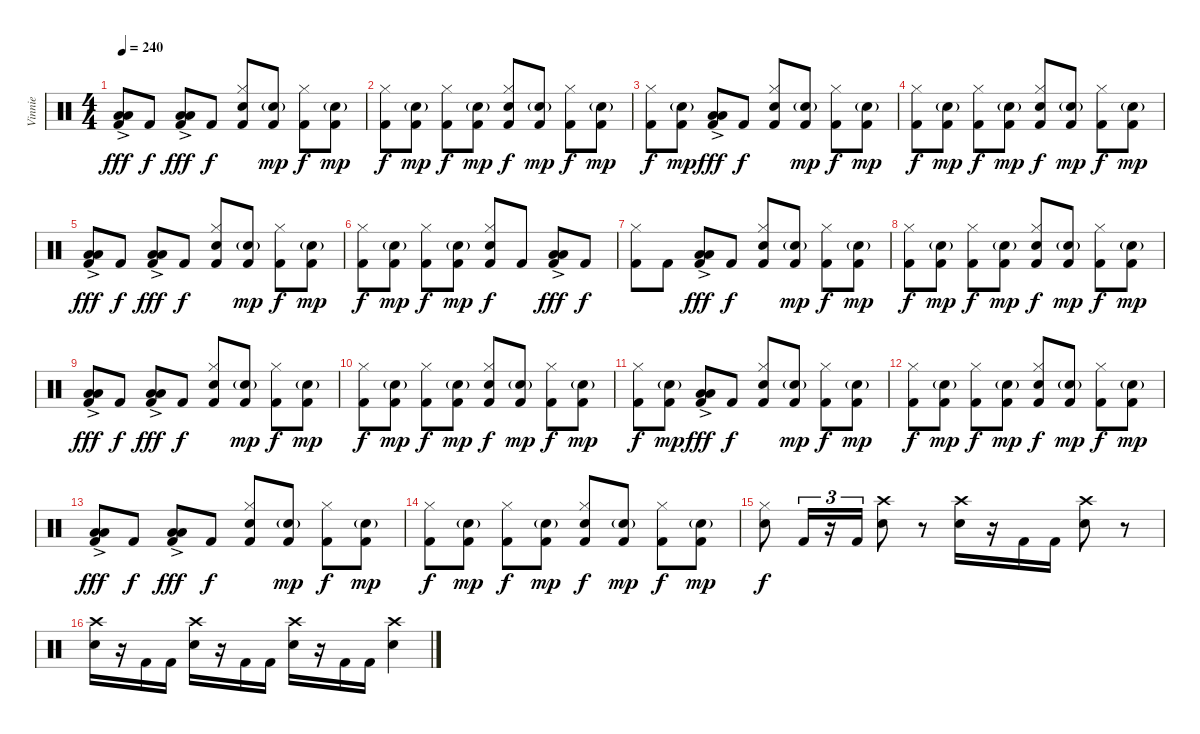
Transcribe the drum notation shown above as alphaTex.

\track ("Vinnie" "Vinnie") {instrument percussion}
\staff {score}
\articulation defaults
\ts (4 4)
\tempo 240
\clef neutral
\ks c
("Low Tom (hit)"{ac} "Low Tom (hit)"{ac} "Kick (hit) 2").8{dy fff} "Kick (hit) 2".8{dy f} ("Low Tom (hit)"{ac} "Low Tom (hit)"{ac} "Kick (hit) 2").8{dy fff} "Kick (hit) 2".8{dy f} ("Hi-Hat (closed)" "Electric Snare (hit)" "Kick (hit) 2").8 ("Electric Snare (hit)"{g} "Kick (hit) 2").8{dy mp} ("Hi-Hat (closed)" "Kick (hit) 2").8{dy f} ("Electric Snare (hit)"{g} "Kick (hit) 2").8{dy mp} |
("Hi-Hat (closed)" "Kick (hit) 2").8{dy f} ("Electric Snare (hit)"{g} "Kick (hit) 2").8{dy mp} ("Hi-Hat (closed)" "Kick (hit) 2").8{dy f} ("Electric Snare (hit)"{g} "Kick (hit) 2").8{dy mp} ("Hi-Hat (closed)" "Electric Snare (hit)" "Kick (hit) 2").8{dy f} ("Electric Snare (hit)"{g} "Kick (hit) 2").8{dy mp} ("Hi-Hat (closed)" "Kick (hit) 2").8{dy f} ("Electric Snare (hit)"{g} "Kick (hit) 2").8{dy mp} |
("Hi-Hat (closed)" "Kick (hit) 2").8{dy f} ("Electric Snare (hit)"{g} "Kick (hit) 2").8{dy mp} ("Low Tom (hit)"{ac} "Low Tom (hit)"{ac} "Kick (hit) 2").8{dy fff} "Kick (hit) 2".8{dy f} ("Hi-Hat (closed)" "Electric Snare (hit)" "Kick (hit) 2").8 ("Electric Snare (hit)"{g} "Kick (hit) 2").8{dy mp} ("Hi-Hat (closed)" "Kick (hit) 2").8{dy f} ("Electric Snare (hit)"{g} "Kick (hit) 2").8{dy mp} |
("Hi-Hat (closed)" "Kick (hit) 2").8{dy f} ("Electric Snare (hit)"{g} "Kick (hit) 2").8{dy mp} ("Hi-Hat (closed)" "Kick (hit) 2").8{dy f} ("Electric Snare (hit)"{g} "Kick (hit) 2").8{dy mp} ("Hi-Hat (closed)" "Electric Snare (hit)" "Kick (hit) 2").8{dy f} ("Electric Snare (hit)"{g} "Kick (hit) 2").8{dy mp} ("Hi-Hat (closed)" "Kick (hit) 2").8{dy f} ("Electric Snare (hit)"{g} "Kick (hit) 2").8{dy mp} |
("Low Tom (hit)"{ac} "Low Tom (hit)"{ac} "Kick (hit) 2").8{dy fff} "Kick (hit) 2".8{dy f} ("Low Tom (hit)"{ac} "Low Tom (hit)"{ac} "Kick (hit) 2").8{dy fff} "Kick (hit) 2".8{dy f} ("Hi-Hat (closed)" "Electric Snare (hit)" "Kick (hit) 2").8 ("Electric Snare (hit)"{g} "Kick (hit) 2").8{dy mp} ("Hi-Hat (closed)" "Kick (hit) 2").8{dy f} ("Electric Snare (hit)"{g} "Kick (hit) 2").8{dy mp} |
("Hi-Hat (closed)" "Kick (hit) 2").8{dy f} ("Electric Snare (hit)"{g} "Kick (hit) 2").8{dy mp} ("Hi-Hat (closed)" "Kick (hit) 2").8{dy f} ("Electric Snare (hit)"{g} "Kick (hit) 2").8{dy mp} ("Hi-Hat (closed)" "Electric Snare (hit)" "Kick (hit) 2").8{dy f} "Kick (hit) 2".8 ("Low Tom (hit)"{ac} "Low Tom (hit)"{ac} "Kick (hit) 2").8{dy fff} "Kick (hit) 2".8{dy f} |
("Hi-Hat (closed)" "Kick (hit) 2").8 "Kick (hit) 2".8 ("Low Tom (hit)"{ac} "Low Tom (hit)"{ac} "Kick (hit) 2").8{dy fff} "Kick (hit) 2".8{dy f} ("Hi-Hat (closed)" "Electric Snare (hit)" "Kick (hit) 2").8 ("Electric Snare (hit)"{g} "Kick (hit) 2").8{dy mp} ("Hi-Hat (closed)" "Kick (hit) 2").8{dy f} ("Electric Snare (hit)"{g} "Kick (hit) 2").8{dy mp} |
("Hi-Hat (closed)" "Kick (hit) 2").8{dy f} ("Electric Snare (hit)"{g} "Kick (hit) 2").8{dy mp} ("Hi-Hat (closed)" "Kick (hit) 2").8{dy f} ("Electric Snare (hit)"{g} "Kick (hit) 2").8{dy mp} ("Hi-Hat (closed)" "Electric Snare (hit)" "Kick (hit) 2").8{dy f} ("Electric Snare (hit)"{g} "Kick (hit) 2").8{dy mp} ("Hi-Hat (closed)" "Kick (hit) 2").8{dy f} ("Electric Snare (hit)"{g} "Kick (hit) 2").8{dy mp} |
("Low Tom (hit)"{ac} "Low Tom (hit)"{ac} "Kick (hit) 2").8{dy fff} "Kick (hit) 2".8{dy f} ("Low Tom (hit)"{ac} "Low Tom (hit)"{ac} "Kick (hit) 2").8{dy fff} "Kick (hit) 2".8{dy f} ("Hi-Hat (closed)" "Electric Snare (hit)" "Kick (hit) 2").8 ("Electric Snare (hit)"{g} "Kick (hit) 2").8{dy mp} ("Hi-Hat (closed)" "Kick (hit) 2").8{dy f} ("Electric Snare (hit)"{g} "Kick (hit) 2").8{dy mp} |
("Hi-Hat (closed)" "Kick (hit) 2").8{dy f} ("Electric Snare (hit)"{g} "Kick (hit) 2").8{dy mp} ("Hi-Hat (closed)" "Kick (hit) 2").8{dy f} ("Electric Snare (hit)"{g} "Kick (hit) 2").8{dy mp} ("Hi-Hat (closed)" "Electric Snare (hit)" "Kick (hit) 2").8{dy f} ("Electric Snare (hit)"{g} "Kick (hit) 2").8{dy mp} ("Hi-Hat (closed)" "Kick (hit) 2").8{dy f} ("Electric Snare (hit)"{g} "Kick (hit) 2").8{dy mp} |
("Hi-Hat (closed)" "Kick (hit) 2").8{dy f} ("Electric Snare (hit)"{g} "Kick (hit) 2").8{dy mp} ("Low Tom (hit)"{ac} "Low Tom (hit)"{ac} "Kick (hit) 2").8{dy fff} "Kick (hit) 2".8{dy f} ("Hi-Hat (closed)" "Electric Snare (hit)" "Kick (hit) 2").8 ("Electric Snare (hit)"{g} "Kick (hit) 2").8{dy mp} ("Hi-Hat (closed)" "Kick (hit) 2").8{dy f} ("Electric Snare (hit)"{g} "Kick (hit) 2").8{dy mp} |
("Hi-Hat (closed)" "Kick (hit) 2").8{dy f} ("Electric Snare (hit)"{g} "Kick (hit) 2").8{dy mp} ("Hi-Hat (closed)" "Kick (hit) 2").8{dy f} ("Electric Snare (hit)"{g} "Kick (hit) 2").8{dy mp} ("Hi-Hat (closed)" "Electric Snare (hit)" "Kick (hit) 2").8{dy f} ("Electric Snare (hit)"{g} "Kick (hit) 2").8{dy mp} ("Hi-Hat (closed)" "Kick (hit) 2").8{dy f} ("Electric Snare (hit)"{g} "Kick (hit) 2").8{dy mp} |
("Low Tom (hit)"{ac} "Low Tom (hit)"{ac} "Kick (hit) 2").8{dy fff} "Kick (hit) 2".8{dy f} ("Low Tom (hit)"{ac} "Low Tom (hit)"{ac} "Kick (hit) 2").8{dy fff} "Kick (hit) 2".8{dy f} ("Hi-Hat (closed)" "Electric Snare (hit)" "Kick (hit) 2").8 ("Electric Snare (hit)"{g} "Kick (hit) 2").8{dy mp} ("Hi-Hat (closed)" "Kick (hit) 2").8{dy f} ("Electric Snare (hit)"{g} "Kick (hit) 2").8{dy mp} |
("Hi-Hat (closed)" "Kick (hit) 2").8{dy f} ("Electric Snare (hit)"{g} "Kick (hit) 2").8{dy mp} ("Hi-Hat (closed)" "Kick (hit) 2").8{dy f} ("Electric Snare (hit)"{g} "Kick (hit) 2").8{dy mp} ("Hi-Hat (closed)" "Electric Snare (hit)" "Kick (hit) 2").8{dy f} ("Electric Snare (hit)"{g} "Kick (hit) 2").8{dy mp} ("Hi-Hat (closed)" "Kick (hit) 2").8{dy f} ("Electric Snare (hit)"{g} "Kick (hit) 2").8{dy mp} |
("Hi-Hat (closed)" "Electric Snare (hit)").8{dy f} "Kick (hit) 2".16{tu (3 2)} r.16{tu (3 2)} "Kick (hit) 2".16{tu (3 2)} ("Crash high (hit)" "Electric Snare (hit)").8 r.8 ("Crash high (hit)" "Electric Snare (hit)").16 r.16 "Kick (hit) 2".16 "Kick (hit) 2".16 ("Crash high (hit)" "Electric Snare (hit)").8 r.8 |
("Crash high (hit)" "Electric Snare (hit)").16 r.16 "Kick (hit) 2".16 "Kick (hit) 2".16 ("Crash high (hit)" "Electric Snare (hit)").16 r.16 "Kick (hit) 2".16 "Kick (hit) 2".16 ("Crash high (hit)" "Electric Snare (hit)").16 r.16 "Kick (hit) 2".16 "Kick (hit) 2".16 ("Crash high (hit)" "Electric Snare (hit)").4
